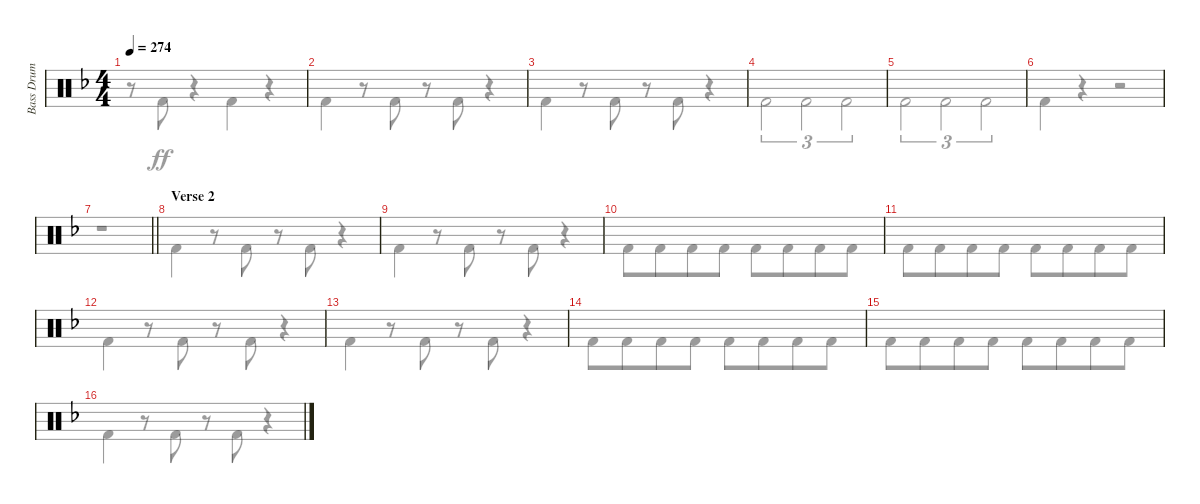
\track ("Bass Drum" "Bass Drum") {instrument percussion}
\staff {score}
\articulation defaults
\voice
\ts (4 4)
\tempo 274
\clef neutral
\ks dminor
|
|
|
|
|
|
\barLineRight lightlight
|
\section ("" "Verse 2")
|
|
|
|
|
|
|
|
\voice
\clef neutral
\ks dminor
r.8{dy ff} "Kick (hit) 2".8 r.4 "Kick (hit) 2".4 r.4 |
"Kick (hit) 2".4 r.8 "Kick (hit) 2".8 r.8 "Kick (hit) 2".8 r.4 |
"Kick (hit) 2".4 r.8 "Kick (hit) 2".8 r.8 "Kick (hit) 2".8 r.4 |
"Kick (hit) 2".2{tu (3 2)} "Kick (hit) 2".2{tu (3 2)} "Kick (hit) 2".2{tu (3 2)} |
"Kick (hit) 2".2{tu (3 2)} "Kick (hit) 2".2{tu (3 2)} "Kick (hit) 2".2{tu (3 2)} |
"Kick (hit) 2".4 r.4 r.2 |
\barLineRight lightlight
r.1 |
"Kick (hit) 2".4 r.8 "Kick (hit) 2".8 r.8 "Kick (hit) 2".8 r.4 |
"Kick (hit) 2".4 r.8 "Kick (hit) 2".8 r.8 "Kick (hit) 2".8 r.4 |
"Kick (hit) 2".8 "Kick (hit) 2".8{beam merge} "Kick (hit) 2".8 "Kick (hit) 2".8 "Kick (hit) 2".8 "Kick (hit) 2".8{beam merge} "Kick (hit) 2".8 "Kick (hit) 2".8 |
"Kick (hit) 2".8 "Kick (hit) 2".8{beam merge} "Kick (hit) 2".8 "Kick (hit) 2".8 "Kick (hit) 2".8 "Kick (hit) 2".8{beam merge} "Kick (hit) 2".8 "Kick (hit) 2".8 |
"Kick (hit) 2".4 r.8 "Kick (hit) 2".8 r.8 "Kick (hit) 2".8 r.4 |
"Kick (hit) 2".4 r.8 "Kick (hit) 2".8 r.8 "Kick (hit) 2".8 r.4 |
"Kick (hit) 2".8 "Kick (hit) 2".8{beam merge} "Kick (hit) 2".8 "Kick (hit) 2".8 "Kick (hit) 2".8 "Kick (hit) 2".8{beam merge} "Kick (hit) 2".8 "Kick (hit) 2".8 |
"Kick (hit) 2".8 "Kick (hit) 2".8{beam merge} "Kick (hit) 2".8 "Kick (hit) 2".8 "Kick (hit) 2".8 "Kick (hit) 2".8{beam merge} "Kick (hit) 2".8 "Kick (hit) 2".8 |
"Kick (hit) 2".4 r.8 "Kick (hit) 2".8 r.8 "Kick (hit) 2".8 r.4
